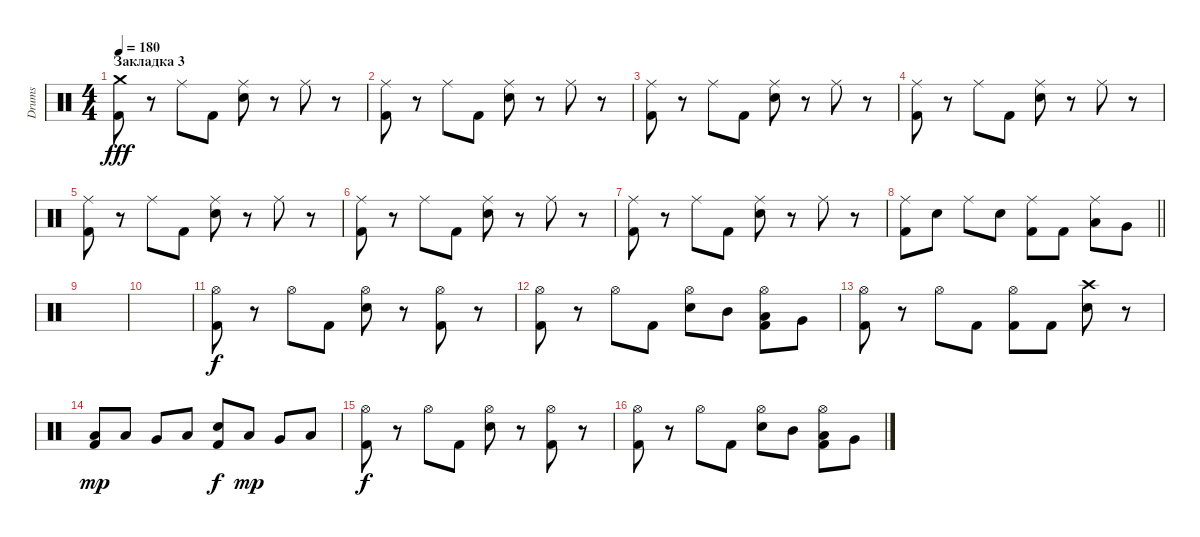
\track ("Drums" "Drums") {instrument percussion}
\staff {score}
\articulation defaults
\ts (4 4)
\section ("" "Закладка 3")
\tempo 180
\clef neutral
\ks c
("Crash medium (hit)" "Kick (hit) 2").8{dy fff} r.8 "Ride (middle)".8 "Kick (hit) 2".8 ("Ride (middle)" "Electric Snare (hit)").8 r.8 "Ride (middle)".8 r.8 |
("Ride (middle)" "Kick (hit) 2").8 r.8 "Ride (middle)".8 "Kick (hit) 2".8 ("Ride (middle)" "Electric Snare (hit)").8 r.8 "Ride (middle)".8 r.8 |
("Ride (middle)" "Kick (hit) 2").8 r.8 "Ride (middle)".8 "Kick (hit) 2".8 ("Ride (middle)" "Electric Snare (hit)").8 r.8 "Ride (middle)".8 r.8 |
("Ride (middle)" "Kick (hit) 2").8 r.8 "Ride (middle)".8 "Kick (hit) 2".8 ("Ride (middle)" "Electric Snare (hit)").8 r.8 "Ride (middle)".8 r.8 |
("Ride (middle)" "Kick (hit) 2").8 r.8 "Ride (middle)".8 "Kick (hit) 2".8 ("Ride (middle)" "Electric Snare (hit)").8 r.8 "Ride (middle)".8 r.8 |
("Ride (middle)" "Kick (hit) 2").8 r.8 "Ride (middle)".8 "Kick (hit) 2".8 ("Ride (middle)" "Electric Snare (hit)").8 r.8 "Ride (middle)".8 r.8 |
("Ride (middle)" "Kick (hit) 2").8 r.8 "Ride (middle)".8 "Kick (hit) 2".8 ("Ride (middle)" "Electric Snare (hit)").8 r.8 "Ride (middle)".8 r.8 |
\barLineRight lightlight
("Ride (middle)" "Kick (hit) 2").8 "Electric Snare (hit)".8 "Ride (middle)".8 "Electric Snare (hit)".8 ("Ride (middle)" "Kick (hit) 2").8 "Kick (hit) 2".8 ("Ride (middle)" "Low Tom (hit)").8 "Very Low Tom (hit)".8 |
|
|
("Hi-Hat (open)" "Kick (hit) 2").8{dy f} r.8 "Hi-Hat (open)".8 "Kick (hit) 2".8 ("Hi-Hat (open)" "Electric Snare (hit)").8 r.8 ("Hi-Hat (open)" "Kick (hit) 2").8 r.8 |
("Hi-Hat (open)" "Kick (hit) 2").8 r.8 "Hi-Hat (open)".8 "Kick (hit) 2".8 ("Hi-Hat (open)" "Electric Snare (hit)").8 "Mid Tom (hit)".8 ("Hi-Hat (open)" "Low Tom (hit)" "Kick (hit) 2").8 "Very Low Tom (hit)".8 |
("Hi-Hat (open)" "Kick (hit) 2").8 r.8 "Hi-Hat (open)".8 "Kick (hit) 2".8 ("Hi-Hat (open)" "Kick (hit) 2").8 "Kick (hit) 2".8 ("Crash high (hit)" "Electric Snare (hit)").8 r.8 |
("Low Tom (hit)" "Kick (hit) 2").8{dy mp} "Low Tom (hit)".8 "Very Low Tom (hit)".8 "Low Floor Tom (hit)".8 ("Electric Snare (hit)" "Kick (hit) 2").8{dy f} "Low Tom (hit)".8{dy mp} "Very Low Tom (hit)".8 "Low Floor Tom (hit)".8 |
("Hi-Hat (open)" "Kick (hit) 2").8{dy f} r.8 "Hi-Hat (open)".8 "Kick (hit) 2".8 ("Hi-Hat (open)" "Electric Snare (hit)").8 r.8 ("Hi-Hat (open)" "Kick (hit) 2").8 r.8 |
("Hi-Hat (open)" "Kick (hit) 2").8 r.8 "Hi-Hat (open)".8 "Kick (hit) 2".8 ("Hi-Hat (open)" "Electric Snare (hit)").8 "Mid Tom (hit)".8 ("Hi-Hat (open)" "Low Tom (hit)" "Kick (hit) 2").8 "Very Low Tom (hit)".8
